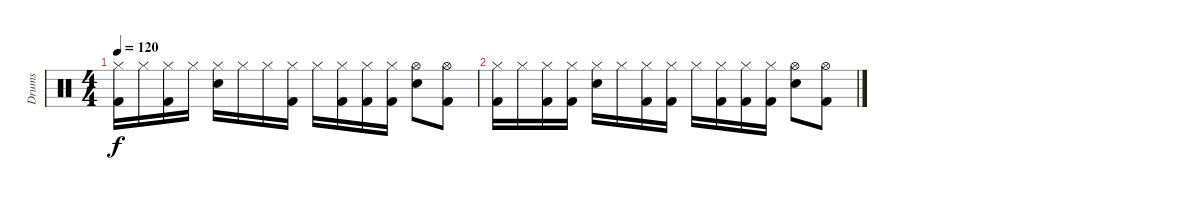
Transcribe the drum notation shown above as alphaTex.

\track ("Drums" "Drums") {instrument percussion}
\staff {score}
\articulation defaults
\ts (4 4)
\tempo 120
\clef neutral
\ks c
("Hi-Hat (closed)" "Kick (hit) 2").16{dy f volume 0} "Hi-Hat (closed)".16 ("Hi-Hat (closed)" "Kick (hit) 2").16 "Hi-Hat (closed)".16 ("Hi-Hat (closed)" "Snare (hit) 2").16 "Hi-Hat (closed)".16 "Hi-Hat (closed)".16 ("Hi-Hat (closed)" "Kick (hit) 2").16 "Hi-Hat (closed)".16 ("Hi-Hat (closed)" "Kick (hit) 2").16 ("Hi-Hat (closed)" "Kick (hit) 2").16 ("Hi-Hat (closed)" "Kick (hit) 2").16 ("Hi-Hat (open)" "Snare (hit) 2").8 ("Hi-Hat (open)" "Kick (hit) 2").8 |
("Hi-Hat (closed)" "Kick (hit) 2").16 "Hi-Hat (closed)".16 ("Hi-Hat (closed)" "Kick (hit) 2").16 ("Hi-Hat (closed)" "Kick (hit) 2").16 ("Hi-Hat (closed)" "Snare (hit) 2").16 "Hi-Hat (closed)".16 ("Hi-Hat (closed)" "Kick (hit) 2").16 ("Hi-Hat (closed)" "Kick (hit) 2").16 "Hi-Hat (closed)".16 ("Hi-Hat (closed)" "Kick (hit) 2").16 ("Hi-Hat (closed)" "Kick (hit) 2").16 ("Hi-Hat (closed)" "Kick (hit) 2").16 ("Hi-Hat (open)" "Snare (hit) 2").8 ("Hi-Hat (open)" "Kick (hit) 2").8
